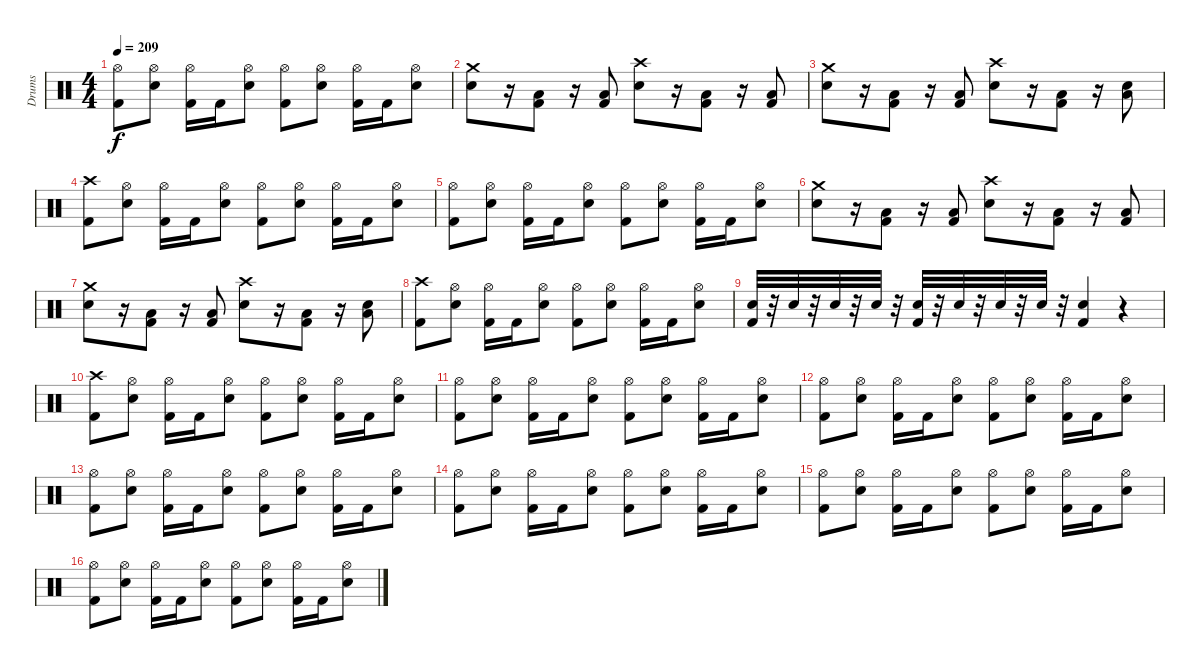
\track ("Drums" "Drums") {instrument percussion}
\staff {score}
\articulation defaults
\ts (4 4)
\tempo 209
\clef neutral
\ks c
("Kick (hit) 2" "Hi-Hat (open)").8{dy f} ("Hi-Hat (open)" "Electric Snare (hit)").8 ("Kick (hit) 2" "Hi-Hat (open)").16 "Kick (hit) 2".16 ("Hi-Hat (open)" "Electric Snare (hit)").8 ("Kick (hit) 2" "Hi-Hat (open)").8 ("Hi-Hat (open)" "Electric Snare (hit)").8 ("Kick (hit) 2" "Hi-Hat (open)").16 "Kick (hit) 2".16 ("Hi-Hat (open)" "Electric Snare (hit)").8 |
("Electric Snare (hit)" "Crash medium (hit)").8 r.16 ("Kick (hit) 2" "Low Floor Tom (hit)").8 r.16 ("Kick (hit) 2" "Low Floor Tom (hit)").8 ("Crash high (hit)" "Electric Snare (hit)").8 r.16 ("Kick (hit) 2" "Low Floor Tom (hit)").8 r.16 ("Kick (hit) 2" "Low Floor Tom (hit)").8 |
("Electric Snare (hit)" "Crash medium (hit)").8 r.16 ("Kick (hit) 2" "Low Floor Tom (hit)").8 r.16 ("Kick (hit) 2" "Low Floor Tom (hit)").8 ("Crash high (hit)" "Electric Snare (hit)").8 r.16 ("Kick (hit) 2" "Low Floor Tom (hit)").8 r.16 ("Low Floor Tom (hit)" "Electric Snare (hit)").8 |
("Crash high (hit)" "Kick (hit) 2").8 ("Hi-Hat (open)" "Electric Snare (hit)").8 ("Kick (hit) 2" "Hi-Hat (open)").16 "Kick (hit) 2".16 ("Hi-Hat (open)" "Electric Snare (hit)").8 ("Kick (hit) 2" "Hi-Hat (open)").8 ("Hi-Hat (open)" "Electric Snare (hit)").8 ("Kick (hit) 2" "Hi-Hat (open)").16 "Kick (hit) 2".16 ("Hi-Hat (open)" "Electric Snare (hit)").8 |
("Kick (hit) 2" "Hi-Hat (open)").8 ("Hi-Hat (open)" "Electric Snare (hit)").8 ("Kick (hit) 2" "Hi-Hat (open)").16 "Kick (hit) 2".16 ("Hi-Hat (open)" "Electric Snare (hit)").8 ("Kick (hit) 2" "Hi-Hat (open)").8 ("Hi-Hat (open)" "Electric Snare (hit)").8 ("Kick (hit) 2" "Hi-Hat (open)").16 "Kick (hit) 2".16 ("Hi-Hat (open)" "Electric Snare (hit)").8 |
("Electric Snare (hit)" "Crash medium (hit)").8 r.16 ("Kick (hit) 2" "Low Floor Tom (hit)").8 r.16 ("Kick (hit) 2" "Low Floor Tom (hit)").8 ("Crash high (hit)" "Electric Snare (hit)").8 r.16 ("Kick (hit) 2" "Low Floor Tom (hit)").8 r.16 ("Kick (hit) 2" "Low Floor Tom (hit)").8 |
("Electric Snare (hit)" "Crash medium (hit)").8 r.16 ("Kick (hit) 2" "Low Floor Tom (hit)").8 r.16 ("Kick (hit) 2" "Low Floor Tom (hit)").8 ("Crash high (hit)" "Electric Snare (hit)").8 r.16 ("Kick (hit) 2" "Low Floor Tom (hit)").8 r.16 ("Low Floor Tom (hit)" "Electric Snare (hit)").8 |
("Crash high (hit)" "Kick (hit) 2").8 ("Hi-Hat (open)" "Electric Snare (hit)").8 ("Kick (hit) 2" "Hi-Hat (open)").16 "Kick (hit) 2".16 ("Hi-Hat (open)" "Electric Snare (hit)").8 ("Kick (hit) 2" "Hi-Hat (open)").8 ("Hi-Hat (open)" "Electric Snare (hit)").8 ("Kick (hit) 2" "Hi-Hat (open)").16 "Kick (hit) 2".16 ("Hi-Hat (open)" "Electric Snare (hit)").8 |
("Electric Snare (hit)" "Kick (hit) 2").32 r.32 "Electric Snare (hit)".32 r.32 "Electric Snare (hit)".32 r.32 "Electric Snare (hit)".32 r.32 ("Electric Snare (hit)" "Kick (hit) 2").32 r.32 "Electric Snare (hit)".32 r.32 "Electric Snare (hit)".32 r.32 "Electric Snare (hit)".32 r.32 ("Electric Snare (hit)" "Kick (hit) 2").4 r.4 |
("Crash high (hit)" "Kick (hit) 2").8 ("Hi-Hat (open)" "Electric Snare (hit)").8 ("Kick (hit) 2" "Hi-Hat (open)").16 "Kick (hit) 2".16 ("Hi-Hat (open)" "Electric Snare (hit)").8 ("Kick (hit) 2" "Hi-Hat (open)").8 ("Hi-Hat (open)" "Electric Snare (hit)").8 ("Kick (hit) 2" "Hi-Hat (open)").16 "Kick (hit) 2".16 ("Hi-Hat (open)" "Electric Snare (hit)").8 |
("Kick (hit) 2" "Hi-Hat (open)").8 ("Hi-Hat (open)" "Electric Snare (hit)").8 ("Kick (hit) 2" "Hi-Hat (open)").16 "Kick (hit) 2".16 ("Hi-Hat (open)" "Electric Snare (hit)").8 ("Kick (hit) 2" "Hi-Hat (open)").8 ("Hi-Hat (open)" "Electric Snare (hit)").8 ("Kick (hit) 2" "Hi-Hat (open)").16 "Kick (hit) 2".16 ("Hi-Hat (open)" "Electric Snare (hit)").8 |
("Kick (hit) 2" "Hi-Hat (open)").8 ("Hi-Hat (open)" "Electric Snare (hit)").8 ("Kick (hit) 2" "Hi-Hat (open)").16 "Kick (hit) 2".16 ("Hi-Hat (open)" "Electric Snare (hit)").8 ("Kick (hit) 2" "Hi-Hat (open)").8 ("Hi-Hat (open)" "Electric Snare (hit)").8 ("Kick (hit) 2" "Hi-Hat (open)").16 "Kick (hit) 2".16 ("Hi-Hat (open)" "Electric Snare (hit)").8 |
("Kick (hit) 2" "Hi-Hat (open)").8 ("Hi-Hat (open)" "Electric Snare (hit)").8 ("Kick (hit) 2" "Hi-Hat (open)").16 "Kick (hit) 2".16 ("Hi-Hat (open)" "Electric Snare (hit)").8 ("Kick (hit) 2" "Hi-Hat (open)").8 ("Hi-Hat (open)" "Electric Snare (hit)").8 ("Kick (hit) 2" "Hi-Hat (open)").16 "Kick (hit) 2".16 ("Hi-Hat (open)" "Electric Snare (hit)").8 |
("Kick (hit) 2" "Hi-Hat (open)").8 ("Hi-Hat (open)" "Electric Snare (hit)").8 ("Kick (hit) 2" "Hi-Hat (open)").16 "Kick (hit) 2".16 ("Hi-Hat (open)" "Electric Snare (hit)").8 ("Kick (hit) 2" "Hi-Hat (open)").8 ("Hi-Hat (open)" "Electric Snare (hit)").8 ("Kick (hit) 2" "Hi-Hat (open)").16 "Kick (hit) 2".16 ("Hi-Hat (open)" "Electric Snare (hit)").8 |
("Kick (hit) 2" "Hi-Hat (open)").8 ("Hi-Hat (open)" "Electric Snare (hit)").8 ("Kick (hit) 2" "Hi-Hat (open)").16 "Kick (hit) 2".16 ("Hi-Hat (open)" "Electric Snare (hit)").8 ("Kick (hit) 2" "Hi-Hat (open)").8 ("Hi-Hat (open)" "Electric Snare (hit)").8 ("Kick (hit) 2" "Hi-Hat (open)").16 "Kick (hit) 2".16 ("Hi-Hat (open)" "Electric Snare (hit)").8 |
("Kick (hit) 2" "Hi-Hat (open)").8 ("Hi-Hat (open)" "Electric Snare (hit)").8 ("Kick (hit) 2" "Hi-Hat (open)").16 "Kick (hit) 2".16 ("Hi-Hat (open)" "Electric Snare (hit)").8 ("Kick (hit) 2" "Hi-Hat (open)").8 ("Hi-Hat (open)" "Electric Snare (hit)").8 ("Kick (hit) 2" "Hi-Hat (open)").16 "Kick (hit) 2".16 ("Hi-Hat (open)" "Electric Snare (hit)").8
